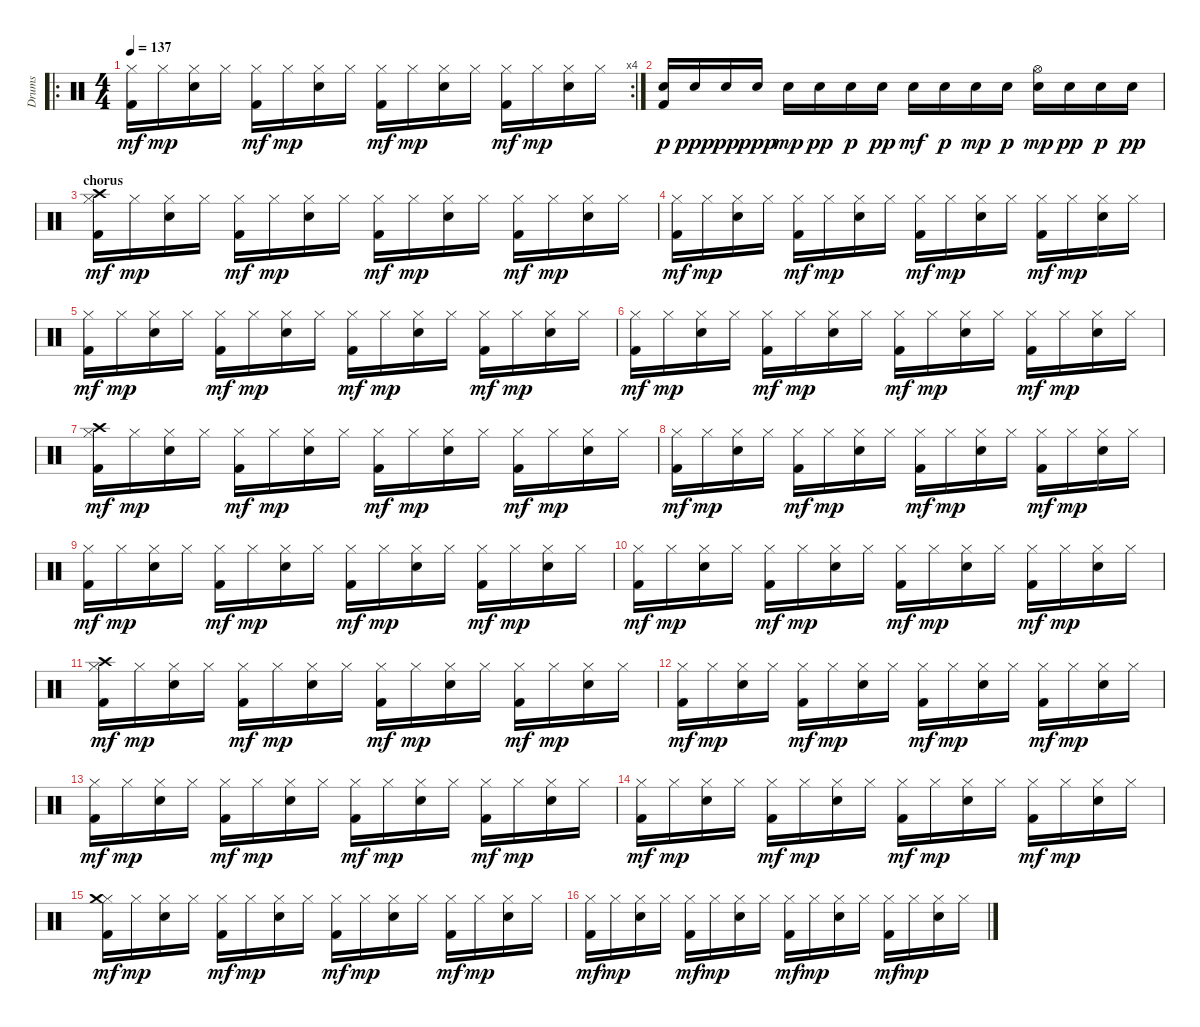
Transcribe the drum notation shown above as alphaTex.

\track ("Drums" "Drums") {instrument percussion}
\staff {score}
\articulation defaults
\ro
\rc 4
\ts (4 4)
\tempo 137
\clef neutral
\ks c
("Hi-Hat (closed)" "Kick (hit) 2").16{dy mf} "Hi-Hat (closed)".16{dy mp} ("Hi-Hat (closed)" "Snare (hit) 2").16 "Hi-Hat (closed)".16 ("Hi-Hat (closed)" "Kick (hit) 2").16{dy mf} "Hi-Hat (closed)".16{dy mp} ("Hi-Hat (closed)" "Snare (hit) 2").16 "Hi-Hat (closed)".16 ("Hi-Hat (closed)" "Kick (hit) 2").16{dy mf} "Hi-Hat (closed)".16{dy mp} ("Hi-Hat (closed)" "Snare (hit) 2").16 "Hi-Hat (closed)".16 ("Hi-Hat (closed)" "Kick (hit) 2").16{dy mf} "Hi-Hat (closed)".16{dy mp} ("Hi-Hat (closed)" "Snare (hit) 2").16 "Hi-Hat (closed)".16 |
("Snare (hit) 2" "Kick (hit) 2").16{dy p} "Snare (hit) 2".16{dy ppp} "Snare (hit) 2".16{dy pp} "Snare (hit) 2".16{dy ppp} "Snare (hit) 2".16{dy mp} "Snare (hit) 2".16{dy pp} "Snare (hit) 2".16{dy p} "Snare (hit) 2".16{dy pp} "Snare (hit) 2".16{dy mf} "Snare (hit) 2".16{dy p} "Snare (hit) 2".16{dy mp} "Snare (hit) 2".16{dy p} ("Hi-Hat (open)" "Snare (hit) 2").16{dy mp} "Snare (hit) 2".16{dy pp} "Snare (hit) 2".16{dy p} "Snare (hit) 2".16{dy pp} |
\section ("" "chorus")
("Hi-Hat (closed)" "Crash high (hit)" "Kick (hit) 2").16{dy mf} "Hi-Hat (closed)".16{dy mp} ("Hi-Hat (closed)" "Snare (hit) 2").16 "Hi-Hat (closed)".16 ("Hi-Hat (closed)" "Kick (hit) 2").16{dy mf} "Hi-Hat (closed)".16{dy mp} ("Hi-Hat (closed)" "Snare (hit) 2").16 "Hi-Hat (closed)".16 ("Hi-Hat (closed)" "Kick (hit) 2").16{dy mf} "Hi-Hat (closed)".16{dy mp} ("Hi-Hat (closed)" "Snare (hit) 2").16 "Hi-Hat (closed)".16 ("Hi-Hat (closed)" "Kick (hit) 2").16{dy mf} "Hi-Hat (closed)".16{dy mp} ("Hi-Hat (closed)" "Snare (hit) 2").16 "Hi-Hat (closed)".16 |
("Hi-Hat (closed)" "Kick (hit) 2").16{dy mf} "Hi-Hat (closed)".16{dy mp} ("Hi-Hat (closed)" "Snare (hit) 2").16 "Hi-Hat (closed)".16 ("Hi-Hat (closed)" "Kick (hit) 2").16{dy mf} "Hi-Hat (closed)".16{dy mp} ("Hi-Hat (closed)" "Snare (hit) 2").16 "Hi-Hat (closed)".16 ("Hi-Hat (closed)" "Kick (hit) 2").16{dy mf} "Hi-Hat (closed)".16{dy mp} ("Hi-Hat (closed)" "Snare (hit) 2").16 "Hi-Hat (closed)".16 ("Hi-Hat (closed)" "Kick (hit) 2").16{dy mf} "Hi-Hat (closed)".16{dy mp} ("Hi-Hat (closed)" "Snare (hit) 2").16 "Hi-Hat (closed)".16 |
("Hi-Hat (closed)" "Kick (hit) 2").16{dy mf} "Hi-Hat (closed)".16{dy mp} ("Hi-Hat (closed)" "Snare (hit) 2").16 "Hi-Hat (closed)".16 ("Hi-Hat (closed)" "Kick (hit) 2").16{dy mf} "Hi-Hat (closed)".16{dy mp} ("Hi-Hat (closed)" "Snare (hit) 2").16 "Hi-Hat (closed)".16 ("Hi-Hat (closed)" "Kick (hit) 2").16{dy mf} "Hi-Hat (closed)".16{dy mp} ("Hi-Hat (closed)" "Snare (hit) 2").16 "Hi-Hat (closed)".16 ("Hi-Hat (closed)" "Kick (hit) 2").16{dy mf} "Hi-Hat (closed)".16{dy mp} ("Hi-Hat (closed)" "Snare (hit) 2").16 "Hi-Hat (closed)".16 |
("Hi-Hat (closed)" "Kick (hit) 2").16{dy mf} "Hi-Hat (closed)".16{dy mp} ("Hi-Hat (closed)" "Snare (hit) 2").16 "Hi-Hat (closed)".16 ("Hi-Hat (closed)" "Kick (hit) 2").16{dy mf} "Hi-Hat (closed)".16{dy mp} ("Hi-Hat (closed)" "Snare (hit) 2").16 "Hi-Hat (closed)".16 ("Hi-Hat (closed)" "Kick (hit) 2").16{dy mf} "Hi-Hat (closed)".16{dy mp} ("Hi-Hat (closed)" "Snare (hit) 2").16 "Hi-Hat (closed)".16 ("Hi-Hat (closed)" "Kick (hit) 2").16{dy mf} "Hi-Hat (closed)".16{dy mp} ("Hi-Hat (closed)" "Snare (hit) 2").16 "Hi-Hat (closed)".16 |
("Hi-Hat (closed)" "Crash high (hit)" "Kick (hit) 2").16{dy mf} "Hi-Hat (closed)".16{dy mp} ("Hi-Hat (closed)" "Snare (hit) 2").16 "Hi-Hat (closed)".16 ("Hi-Hat (closed)" "Kick (hit) 2").16{dy mf} "Hi-Hat (closed)".16{dy mp} ("Hi-Hat (closed)" "Snare (hit) 2").16 "Hi-Hat (closed)".16 ("Hi-Hat (closed)" "Kick (hit) 2").16{dy mf} "Hi-Hat (closed)".16{dy mp} ("Hi-Hat (closed)" "Snare (hit) 2").16 "Hi-Hat (closed)".16 ("Hi-Hat (closed)" "Kick (hit) 2").16{dy mf} "Hi-Hat (closed)".16{dy mp} ("Hi-Hat (closed)" "Snare (hit) 2").16 "Hi-Hat (closed)".16 |
("Hi-Hat (closed)" "Kick (hit) 2").16{dy mf} "Hi-Hat (closed)".16{dy mp} ("Hi-Hat (closed)" "Snare (hit) 2").16 "Hi-Hat (closed)".16 ("Hi-Hat (closed)" "Kick (hit) 2").16{dy mf} "Hi-Hat (closed)".16{dy mp} ("Hi-Hat (closed)" "Snare (hit) 2").16 "Hi-Hat (closed)".16 ("Hi-Hat (closed)" "Kick (hit) 2").16{dy mf} "Hi-Hat (closed)".16{dy mp} ("Hi-Hat (closed)" "Snare (hit) 2").16 "Hi-Hat (closed)".16 ("Hi-Hat (closed)" "Kick (hit) 2").16{dy mf} "Hi-Hat (closed)".16{dy mp} ("Hi-Hat (closed)" "Snare (hit) 2").16 "Hi-Hat (closed)".16 |
("Hi-Hat (closed)" "Kick (hit) 2").16{dy mf} "Hi-Hat (closed)".16{dy mp} ("Hi-Hat (closed)" "Snare (hit) 2").16 "Hi-Hat (closed)".16 ("Hi-Hat (closed)" "Kick (hit) 2").16{dy mf} "Hi-Hat (closed)".16{dy mp} ("Hi-Hat (closed)" "Snare (hit) 2").16 "Hi-Hat (closed)".16 ("Hi-Hat (closed)" "Kick (hit) 2").16{dy mf} "Hi-Hat (closed)".16{dy mp} ("Hi-Hat (closed)" "Snare (hit) 2").16 "Hi-Hat (closed)".16 ("Hi-Hat (closed)" "Kick (hit) 2").16{dy mf} "Hi-Hat (closed)".16{dy mp} ("Hi-Hat (closed)" "Snare (hit) 2").16 "Hi-Hat (closed)".16 |
("Hi-Hat (closed)" "Kick (hit) 2").16{dy mf} "Hi-Hat (closed)".16{dy mp} ("Hi-Hat (closed)" "Snare (hit) 2").16 "Hi-Hat (closed)".16 ("Hi-Hat (closed)" "Kick (hit) 2").16{dy mf} "Hi-Hat (closed)".16{dy mp} ("Hi-Hat (closed)" "Snare (hit) 2").16 "Hi-Hat (closed)".16 ("Hi-Hat (closed)" "Kick (hit) 2").16{dy mf} "Hi-Hat (closed)".16{dy mp} ("Hi-Hat (closed)" "Snare (hit) 2").16 "Hi-Hat (closed)".16 ("Hi-Hat (closed)" "Kick (hit) 2").16{dy mf} "Hi-Hat (closed)".16{dy mp} ("Hi-Hat (closed)" "Snare (hit) 2").16 "Hi-Hat (closed)".16 |
("Hi-Hat (closed)" "Crash high (hit)" "Kick (hit) 2").16{dy mf} "Hi-Hat (closed)".16{dy mp} ("Hi-Hat (closed)" "Snare (hit) 2").16 "Hi-Hat (closed)".16 ("Hi-Hat (closed)" "Kick (hit) 2").16{dy mf} "Hi-Hat (closed)".16{dy mp} ("Hi-Hat (closed)" "Snare (hit) 2").16 "Hi-Hat (closed)".16 ("Hi-Hat (closed)" "Kick (hit) 2").16{dy mf} "Hi-Hat (closed)".16{dy mp} ("Hi-Hat (closed)" "Snare (hit) 2").16 "Hi-Hat (closed)".16 ("Hi-Hat (closed)" "Kick (hit) 2").16{dy mf} "Hi-Hat (closed)".16{dy mp} ("Hi-Hat (closed)" "Snare (hit) 2").16 "Hi-Hat (closed)".16 |
("Hi-Hat (closed)" "Kick (hit) 2").16{dy mf} "Hi-Hat (closed)".16{dy mp} ("Hi-Hat (closed)" "Snare (hit) 2").16 "Hi-Hat (closed)".16 ("Hi-Hat (closed)" "Kick (hit) 2").16{dy mf} "Hi-Hat (closed)".16{dy mp} ("Hi-Hat (closed)" "Snare (hit) 2").16 "Hi-Hat (closed)".16 ("Hi-Hat (closed)" "Kick (hit) 2").16{dy mf} "Hi-Hat (closed)".16{dy mp} ("Hi-Hat (closed)" "Snare (hit) 2").16 "Hi-Hat (closed)".16 ("Hi-Hat (closed)" "Kick (hit) 2").16{dy mf} "Hi-Hat (closed)".16{dy mp} ("Hi-Hat (closed)" "Snare (hit) 2").16 "Hi-Hat (closed)".16 |
("Hi-Hat (closed)" "Kick (hit) 2").16{dy mf} "Hi-Hat (closed)".16{dy mp} ("Hi-Hat (closed)" "Snare (hit) 2").16 "Hi-Hat (closed)".16 ("Hi-Hat (closed)" "Kick (hit) 2").16{dy mf} "Hi-Hat (closed)".16{dy mp} ("Hi-Hat (closed)" "Snare (hit) 2").16 "Hi-Hat (closed)".16 ("Hi-Hat (closed)" "Kick (hit) 2").16{dy mf} "Hi-Hat (closed)".16{dy mp} ("Hi-Hat (closed)" "Snare (hit) 2").16 "Hi-Hat (closed)".16 ("Hi-Hat (closed)" "Kick (hit) 2").16{dy mf} "Hi-Hat (closed)".16{dy mp} ("Hi-Hat (closed)" "Snare (hit) 2").16 "Hi-Hat (closed)".16 |
("Hi-Hat (closed)" "Kick (hit) 2").16{dy mf} "Hi-Hat (closed)".16{dy mp} ("Hi-Hat (closed)" "Snare (hit) 2").16 "Hi-Hat (closed)".16 ("Hi-Hat (closed)" "Kick (hit) 2").16{dy mf} "Hi-Hat (closed)".16{dy mp} ("Hi-Hat (closed)" "Snare (hit) 2").16 "Hi-Hat (closed)".16 ("Hi-Hat (closed)" "Kick (hit) 2").16{dy mf} "Hi-Hat (closed)".16{dy mp} ("Hi-Hat (closed)" "Snare (hit) 2").16 "Hi-Hat (closed)".16 ("Hi-Hat (closed)" "Kick (hit) 2").16{dy mf} "Hi-Hat (closed)".16{dy mp} ("Hi-Hat (closed)" "Snare (hit) 2").16 "Hi-Hat (closed)".16 |
("Hi-Hat (closed)" "Crash medium (hit)" "Kick (hit) 2").16{dy mf} "Hi-Hat (closed)".16{dy mp} ("Hi-Hat (closed)" "Snare (hit) 2").16 "Hi-Hat (closed)".16 ("Hi-Hat (closed)" "Kick (hit) 2").16{dy mf} "Hi-Hat (closed)".16{dy mp} ("Hi-Hat (closed)" "Snare (hit) 2").16 "Hi-Hat (closed)".16 ("Hi-Hat (closed)" "Kick (hit) 2").16{dy mf} "Hi-Hat (closed)".16{dy mp} ("Hi-Hat (closed)" "Snare (hit) 2").16 "Hi-Hat (closed)".16 ("Hi-Hat (closed)" "Kick (hit) 2").16{dy mf} "Hi-Hat (closed)".16{dy mp} ("Hi-Hat (closed)" "Snare (hit) 2").16 "Hi-Hat (closed)".16 |
("Hi-Hat (closed)" "Kick (hit) 2").16{dy mf} "Hi-Hat (closed)".16{dy mp} ("Hi-Hat (closed)" "Snare (hit) 2").16 "Hi-Hat (closed)".16 ("Hi-Hat (closed)" "Kick (hit) 2").16{dy mf} "Hi-Hat (closed)".16{dy mp} ("Hi-Hat (closed)" "Snare (hit) 2").16 "Hi-Hat (closed)".16 ("Hi-Hat (closed)" "Kick (hit) 2").16{dy mf} "Hi-Hat (closed)".16{dy mp} ("Hi-Hat (closed)" "Snare (hit) 2").16 "Hi-Hat (closed)".16 ("Hi-Hat (closed)" "Kick (hit) 2").16{dy mf} "Hi-Hat (closed)".16{dy mp} ("Hi-Hat (closed)" "Snare (hit) 2").16 "Hi-Hat (closed)".16
